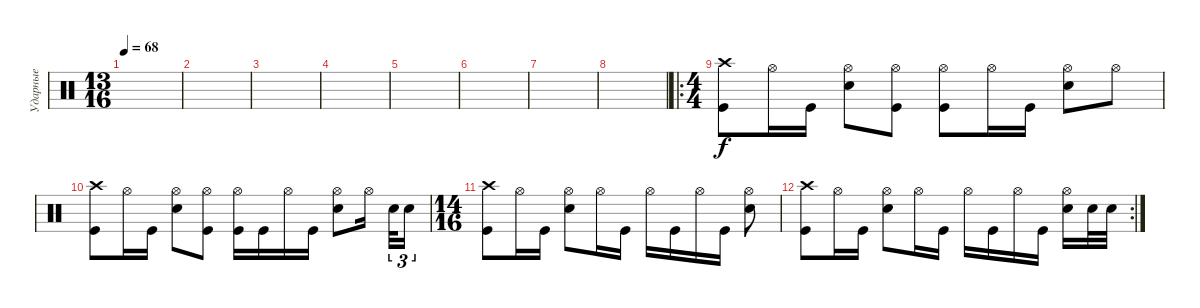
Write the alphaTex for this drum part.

\track ("Ударные" "Ударные") {instrument percussion}
\staff {score}
\articulation defaults
\ts (13 16)
\tempo 68
\clef neutral
\ks c
|
|
|
|
|
|
|
|
\ro
\ts (4 4)
("Crash high (hit)" "Kick (hit)").8 "Hi-Hat (open)".16 "Kick (hit)".16 ("Hi-Hat (open)" "Snare (hit) 2").8 ("Hi-Hat (open)" "Kick (hit)").8 ("Hi-Hat (open)" "Kick (hit)").8 "Hi-Hat (open)".16 "Kick (hit)".16 ("Hi-Hat (open)" "Snare (hit) 2").8 "Hi-Hat (open)".8 |
("Crash high (hit)" "Kick (hit)").8 "Hi-Hat (open)".16 "Kick (hit)".16 ("Hi-Hat (open)" "Snare (hit) 2").8 ("Hi-Hat (open)" "Kick (hit)").8 ("Hi-Hat (open)" "Kick (hit)").16 "Kick (hit)".16 "Hi-Hat (open)".16 "Kick (hit)".16 ("Hi-Hat (open)" "Snare (hit) 2").8 "Hi-Hat (open)".16{beam splitsecondary} "Snare (hit) 2".32{tu (3 2)} "Snare (hit) 2".16{tu (3 2)} |
\ts (14 16)
("Crash high (hit)" "Kick (hit)").8 "Hi-Hat (open)".16 "Kick (hit)".16 ("Hi-Hat (open)" "Snare (hit) 2").8 "Hi-Hat (open)".16 "Kick (hit)".16 "Hi-Hat (open)".16 "Kick (hit)".16 "Hi-Hat (open)".16 "Kick (hit)".16 ("Hi-Hat (open)" "Snare (hit) 2").8 |
\rc 2
("Crash high (hit)" "Kick (hit)").8 "Hi-Hat (open)".16 "Kick (hit)".16 ("Hi-Hat (open)" "Snare (hit) 2").8 "Hi-Hat (open)".16 "Kick (hit)".16 "Hi-Hat (open)".16 "Kick (hit)".16 "Hi-Hat (open)".16 "Kick (hit)".16 ("Hi-Hat (open)" "Snare (hit) 2").16 "Snare (hit) 2".32 "Snare (hit) 2".32
